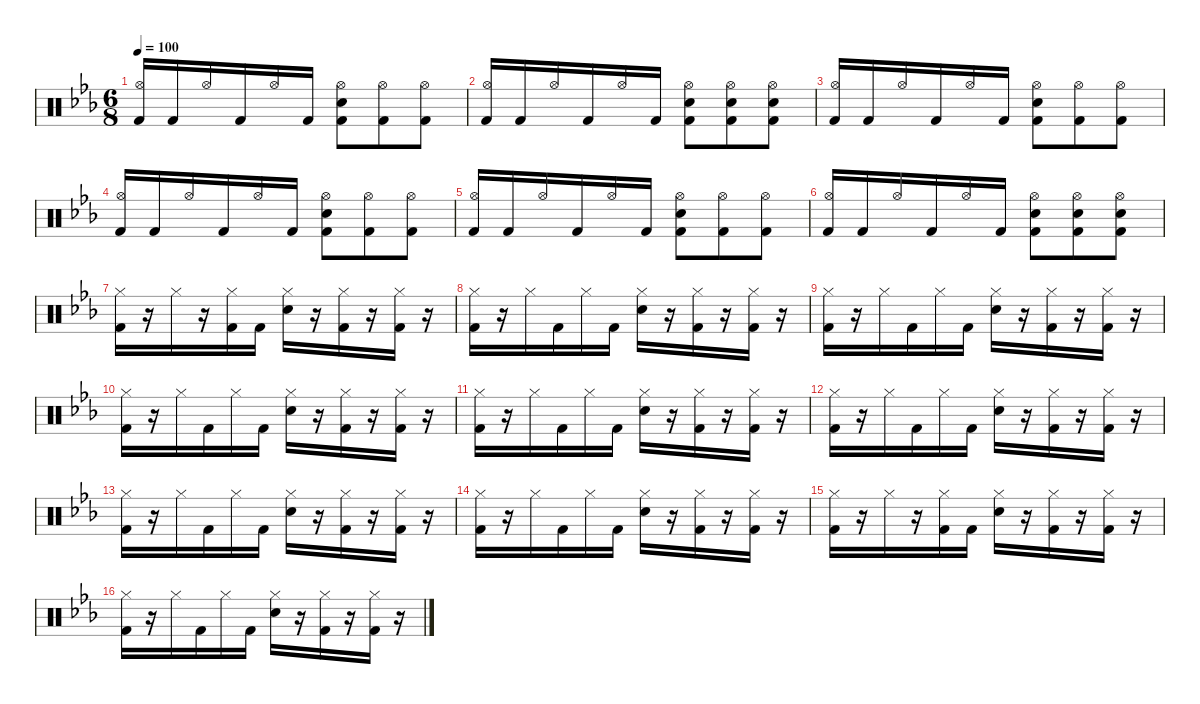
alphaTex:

\defaultSystemsLayout 4
\hideDynamics
\bracketExtendMode nobrackets
\singleTrackTrackNamePolicy hidden
\multiTrackTrackNamePolicy hidden
\firstSystemTrackNameMode fullname
\firstSystemTrackNameOrientation horizontal
\otherSystemsTrackNameOrientation horizontal
\track ("Drums" "drm.") {instrument percussion}
\staff {score}
\articulation defaults
\ts (6 8)
\tempo 100
\clef neutral
\ks eb
("Hi-Hat (open)"{acc forcenatural} "Kick (hit) 2"{acc forcenatural}).16{dy f beam Up} "Kick (hit) 2"{acc forcenatural}.16{beam Up} "Hi-Hat (open)"{acc forcenatural}.16{beam Up} "Kick (hit) 2"{acc forcenatural}.16{beam Up} "Hi-Hat (open)"{acc forcenatural}.16{beam Down} "Kick (hit) 2"{acc forcenatural}.16{beam Down} ("Hi-Hat (open)"{acc forcenatural} "Snare (hit) 2"{acc forcenatural} "Kick (hit) 2"{acc forcenatural}).8{beam Down} ("Hi-Hat (open)"{acc forcenatural} "Kick (hit) 2"{acc forcenatural}).8{beam Down} ("Hi-Hat (open)"{acc forcenatural} "Kick (hit) 2"{acc forcenatural}).8{beam Down} |
("Hi-Hat (open)"{acc forcenatural} "Kick (hit) 2"{acc forcenatural}).16{beam Up} "Kick (hit) 2"{acc forcenatural}.16{beam Up} "Hi-Hat (open)"{acc forcenatural}.16{beam Up} "Kick (hit) 2"{acc forcenatural}.16{beam Up} "Hi-Hat (open)"{acc forcenatural}.16{beam Down} "Kick (hit) 2"{acc forcenatural}.16{beam Down} ("Hi-Hat (open)"{acc forcenatural} "Snare (hit) 2"{acc forcenatural} "Kick (hit) 2"{acc forcenatural}).8{beam Down} ("Hi-Hat (open)"{acc forcenatural} "Snare (hit) 2"{acc forcenatural} "Kick (hit) 2"{acc forcenatural}).8{beam Down} ("Hi-Hat (open)"{acc forcenatural} "Snare (hit) 2"{acc forcenatural} "Kick (hit) 2"{acc forcenatural}).8{beam Down} |
("Hi-Hat (open)"{acc forcenatural} "Kick (hit) 2"{acc forcenatural}).16{beam Up} "Kick (hit) 2"{acc forcenatural}.16{beam Up} "Hi-Hat (open)"{acc forcenatural}.16{beam Up} "Kick (hit) 2"{acc forcenatural}.16{beam Up} "Hi-Hat (open)"{acc forcenatural}.16{beam Down} "Kick (hit) 2"{acc forcenatural}.16{beam Down} ("Hi-Hat (open)"{acc forcenatural} "Snare (hit) 2"{acc forcenatural} "Kick (hit) 2"{acc forcenatural}).8{beam Down} ("Hi-Hat (open)"{acc forcenatural} "Kick (hit) 2"{acc forcenatural}).8{beam Down} ("Hi-Hat (open)"{acc forcenatural} "Kick (hit) 2"{acc forcenatural}).8{beam Down} |
("Hi-Hat (open)"{acc forcenatural} "Kick (hit) 2"{acc forcenatural}).16{beam Up} "Kick (hit) 2"{acc forcenatural}.16{beam Up} "Hi-Hat (open)"{acc forcenatural}.16{beam Up} "Kick (hit) 2"{acc forcenatural}.16{beam Up} "Hi-Hat (open)"{acc forcenatural}.16{beam Down} "Kick (hit) 2"{acc forcenatural}.16{beam Down} ("Hi-Hat (open)"{acc forcenatural} "Snare (hit) 2"{acc forcenatural} "Kick (hit) 2"{acc forcenatural}).8{beam Down} ("Hi-Hat (open)"{acc forcenatural} "Kick (hit) 2"{acc forcenatural}).8{beam Down} ("Hi-Hat (open)"{acc forcenatural} "Kick (hit) 2"{acc forcenatural}).8{beam Down} |
("Hi-Hat (open)"{acc forcenatural} "Kick (hit) 2"{acc forcenatural}).16{beam Up} "Kick (hit) 2"{acc forcenatural}.16{beam Up} "Hi-Hat (open)"{acc forcenatural}.16{beam Up} "Kick (hit) 2"{acc forcenatural}.16{beam Up} "Hi-Hat (open)"{acc forcenatural}.16{beam Down} "Kick (hit) 2"{acc forcenatural}.16{beam Down} ("Hi-Hat (open)"{acc forcenatural} "Snare (hit) 2"{acc forcenatural} "Kick (hit) 2"{acc forcenatural}).8{beam Down} ("Hi-Hat (open)"{acc forcenatural} "Kick (hit) 2"{acc forcenatural}).8{beam Down} ("Hi-Hat (open)"{acc forcenatural} "Kick (hit) 2"{acc forcenatural}).8{beam Down} |
("Hi-Hat (open)"{acc forcenatural} "Kick (hit) 2"{acc forcenatural}).16{beam Up} "Kick (hit) 2"{acc forcenatural}.16{beam Up} "Hi-Hat (open)"{acc forcenatural}.16{beam Up} "Kick (hit) 2"{acc forcenatural}.16{beam Up} "Hi-Hat (open)"{acc forcenatural}.16{beam Down} "Kick (hit) 2"{acc forcenatural}.16{beam Down} ("Hi-Hat (open)"{acc forcenatural} "Snare (hit) 2"{acc forcenatural} "Kick (hit) 2"{acc forcenatural}).8{beam Down} ("Hi-Hat (open)"{acc forcenatural} "Snare (hit) 2"{acc forcenatural} "Kick (hit) 2"{acc forcenatural}).8{beam Down} ("Hi-Hat (open)"{acc forcenatural} "Snare (hit) 2"{acc forcenatural} "Kick (hit) 2"{acc forcenatural}).8{beam Down} |
("Hi-Hat (closed)"{acc forcenatural} "Kick (hit) 2"{acc forcenatural}).16{beam Down} r.16{beam Down} "Hi-Hat (closed)"{acc forcenatural}.16{beam Down} r.16{beam Down} ("Hi-Hat (closed)"{acc forcenatural} "Kick (hit) 2"{acc forcenatural}).16{beam Down} "Kick (hit) 2"{acc forcenatural}.16{beam Down} ("Hi-Hat (closed)"{acc forcenatural} "Snare (hit) 2"{acc forcenatural}).16{beam Down} r.16{beam Down} ("Hi-Hat (closed)"{acc forcenatural} "Kick (hit) 2"{acc forcenatural}).16{beam Down} r.16{beam Down} ("Hi-Hat (closed)"{acc forcenatural} "Kick (hit) 2"{acc forcenatural}).16{beam Down} r.16{beam Down} |
("Hi-Hat (closed)"{acc forcenatural} "Kick (hit) 2"{acc forcenatural}).16{beam Down} r.16{beam Down} "Hi-Hat (closed)"{acc forcenatural}.16{beam Down} "Kick (hit) 2"{acc forcenatural}.16{beam Down} "Hi-Hat (closed)"{acc forcenatural}.16{beam Down} "Kick (hit) 2"{acc forcenatural}.16{beam Down} ("Hi-Hat (closed)"{acc forcenatural} "Snare (hit) 2"{acc forcenatural}).16{beam Down} r.16{beam Down} ("Hi-Hat (closed)"{acc forcenatural} "Kick (hit) 2"{acc forcenatural}).16{beam Down} r.16{beam Down} ("Hi-Hat (closed)"{acc forcenatural} "Kick (hit) 2"{acc forcenatural}).16{beam Down} r.16{beam Down} |
("Hi-Hat (closed)"{acc forcenatural} "Kick (hit) 2"{acc forcenatural}).16{beam Down} r.16{beam Down} "Hi-Hat (closed)"{acc forcenatural}.16{beam Down} "Kick (hit) 2"{acc forcenatural}.16{beam Down} "Hi-Hat (closed)"{acc forcenatural}.16{beam Down} "Kick (hit) 2"{acc forcenatural}.16{beam Down} ("Hi-Hat (closed)"{acc forcenatural} "Snare (hit) 2"{acc forcenatural}).16{beam Down} r.16{beam Down} ("Hi-Hat (closed)"{acc forcenatural} "Kick (hit) 2"{acc forcenatural}).16{beam Down} r.16{beam Down} ("Hi-Hat (closed)"{acc forcenatural} "Kick (hit) 2"{acc forcenatural}).16{beam Down} r.16{beam Down} |
("Hi-Hat (closed)"{acc forcenatural} "Kick (hit) 2"{acc forcenatural}).16{beam Down} r.16{beam Down} "Hi-Hat (closed)"{acc forcenatural}.16{beam Down} "Kick (hit) 2"{acc forcenatural}.16{beam Down} "Hi-Hat (closed)"{acc forcenatural}.16{beam Down} "Kick (hit) 2"{acc forcenatural}.16{beam Down} ("Hi-Hat (closed)"{acc forcenatural} "Snare (hit) 2"{acc forcenatural}).16{beam Down} r.16{beam Down} ("Hi-Hat (closed)"{acc forcenatural} "Kick (hit) 2"{acc forcenatural}).16{beam Down} r.16{beam Down} ("Hi-Hat (closed)"{acc forcenatural} "Kick (hit) 2"{acc forcenatural}).16{beam Down} r.16{beam Down} |
("Hi-Hat (closed)"{acc forcenatural} "Kick (hit) 2"{acc forcenatural}).16{beam Down} r.16{beam Down} "Hi-Hat (closed)"{acc forcenatural}.16{beam Down} "Kick (hit) 2"{acc forcenatural}.16{beam Down} "Hi-Hat (closed)"{acc forcenatural}.16{beam Down} "Kick (hit) 2"{acc forcenatural}.16{beam Down} ("Hi-Hat (closed)"{acc forcenatural} "Snare (hit) 2"{acc forcenatural}).16{beam Down} r.16{beam Down} ("Hi-Hat (closed)"{acc forcenatural} "Kick (hit) 2"{acc forcenatural}).16{beam Down} r.16{beam Down} ("Hi-Hat (closed)"{acc forcenatural} "Kick (hit) 2"{acc forcenatural}).16{beam Down} r.16{beam Down} |
("Hi-Hat (closed)"{acc forcenatural} "Kick (hit) 2"{acc forcenatural}).16{beam Down} r.16{beam Down} "Hi-Hat (closed)"{acc forcenatural}.16{beam Down} "Kick (hit) 2"{acc forcenatural}.16{beam Down} "Hi-Hat (closed)"{acc forcenatural}.16{beam Down} "Kick (hit) 2"{acc forcenatural}.16{beam Down} ("Hi-Hat (closed)"{acc forcenatural} "Snare (hit) 2"{acc forcenatural}).16{beam Down} r.16{beam Down} ("Hi-Hat (closed)"{acc forcenatural} "Kick (hit) 2"{acc forcenatural}).16{beam Down} r.16{beam Down} ("Hi-Hat (closed)"{acc forcenatural} "Kick (hit) 2"{acc forcenatural}).16{beam Down} r.16{beam Down} |
("Hi-Hat (closed)"{acc forcenatural} "Kick (hit) 2"{acc forcenatural}).16{beam Down} r.16{beam Down} "Hi-Hat (closed)"{acc forcenatural}.16{beam Down} "Kick (hit) 2"{acc forcenatural}.16{beam Down} "Hi-Hat (closed)"{acc forcenatural}.16{beam Down} "Kick (hit) 2"{acc forcenatural}.16{beam Down} ("Hi-Hat (closed)"{acc forcenatural} "Snare (hit) 2"{acc forcenatural}).16{beam Down} r.16{beam Down} ("Hi-Hat (closed)"{acc forcenatural} "Kick (hit) 2"{acc forcenatural}).16{beam Down} r.16{beam Down} ("Hi-Hat (closed)"{acc forcenatural} "Kick (hit) 2"{acc forcenatural}).16{beam Down} r.16{beam Down} |
("Hi-Hat (closed)"{acc forcenatural} "Kick (hit) 2"{acc forcenatural}).16{beam Down} r.16{beam Down} "Hi-Hat (closed)"{acc forcenatural}.16{beam Down} "Kick (hit) 2"{acc forcenatural}.16{beam Down} "Hi-Hat (closed)"{acc forcenatural}.16{beam Down} "Kick (hit) 2"{acc forcenatural}.16{beam Down} ("Hi-Hat (closed)"{acc forcenatural} "Snare (hit) 2"{acc forcenatural}).16{beam Down} r.16{beam Down} ("Hi-Hat (closed)"{acc forcenatural} "Kick (hit) 2"{acc forcenatural}).16{beam Down} r.16{beam Down} ("Hi-Hat (closed)"{acc forcenatural} "Kick (hit) 2"{acc forcenatural}).16{beam Down} r.16{beam Down} |
("Hi-Hat (closed)"{acc forcenatural} "Kick (hit) 2"{acc forcenatural}).16{beam Down} r.16{beam Down} "Hi-Hat (closed)"{acc forcenatural}.16{beam Down} r.16{beam Down} ("Hi-Hat (closed)"{acc forcenatural} "Kick (hit) 2"{acc forcenatural}).16{beam Down} "Kick (hit) 2"{acc forcenatural}.16{beam Down} ("Hi-Hat (closed)"{acc forcenatural} "Snare (hit) 2"{acc forcenatural}).16{beam Down} r.16{beam Down} ("Hi-Hat (closed)"{acc forcenatural} "Kick (hit) 2"{acc forcenatural}).16{beam Down} r.16{beam Down} ("Hi-Hat (closed)"{acc forcenatural} "Kick (hit) 2"{acc forcenatural}).16{beam Down} r.16{beam Down} |
("Hi-Hat (closed)"{acc forcenatural} "Kick (hit) 2"{acc forcenatural}).16{beam Down} r.16{beam Down} "Hi-Hat (closed)"{acc forcenatural}.16{beam Down} "Kick (hit) 2"{acc forcenatural}.16{beam Down} "Hi-Hat (closed)"{acc forcenatural}.16{beam Down} "Kick (hit) 2"{acc forcenatural}.16{beam Down} ("Hi-Hat (closed)"{acc forcenatural} "Snare (hit) 2"{acc forcenatural}).16{beam Down} r.16{beam Down} ("Hi-Hat (closed)"{acc forcenatural} "Kick (hit) 2"{acc forcenatural}).16{beam Down} r.16{beam Down} ("Hi-Hat (closed)"{acc forcenatural} "Kick (hit) 2"{acc forcenatural}).16{beam Down} r.16{beam Down}
